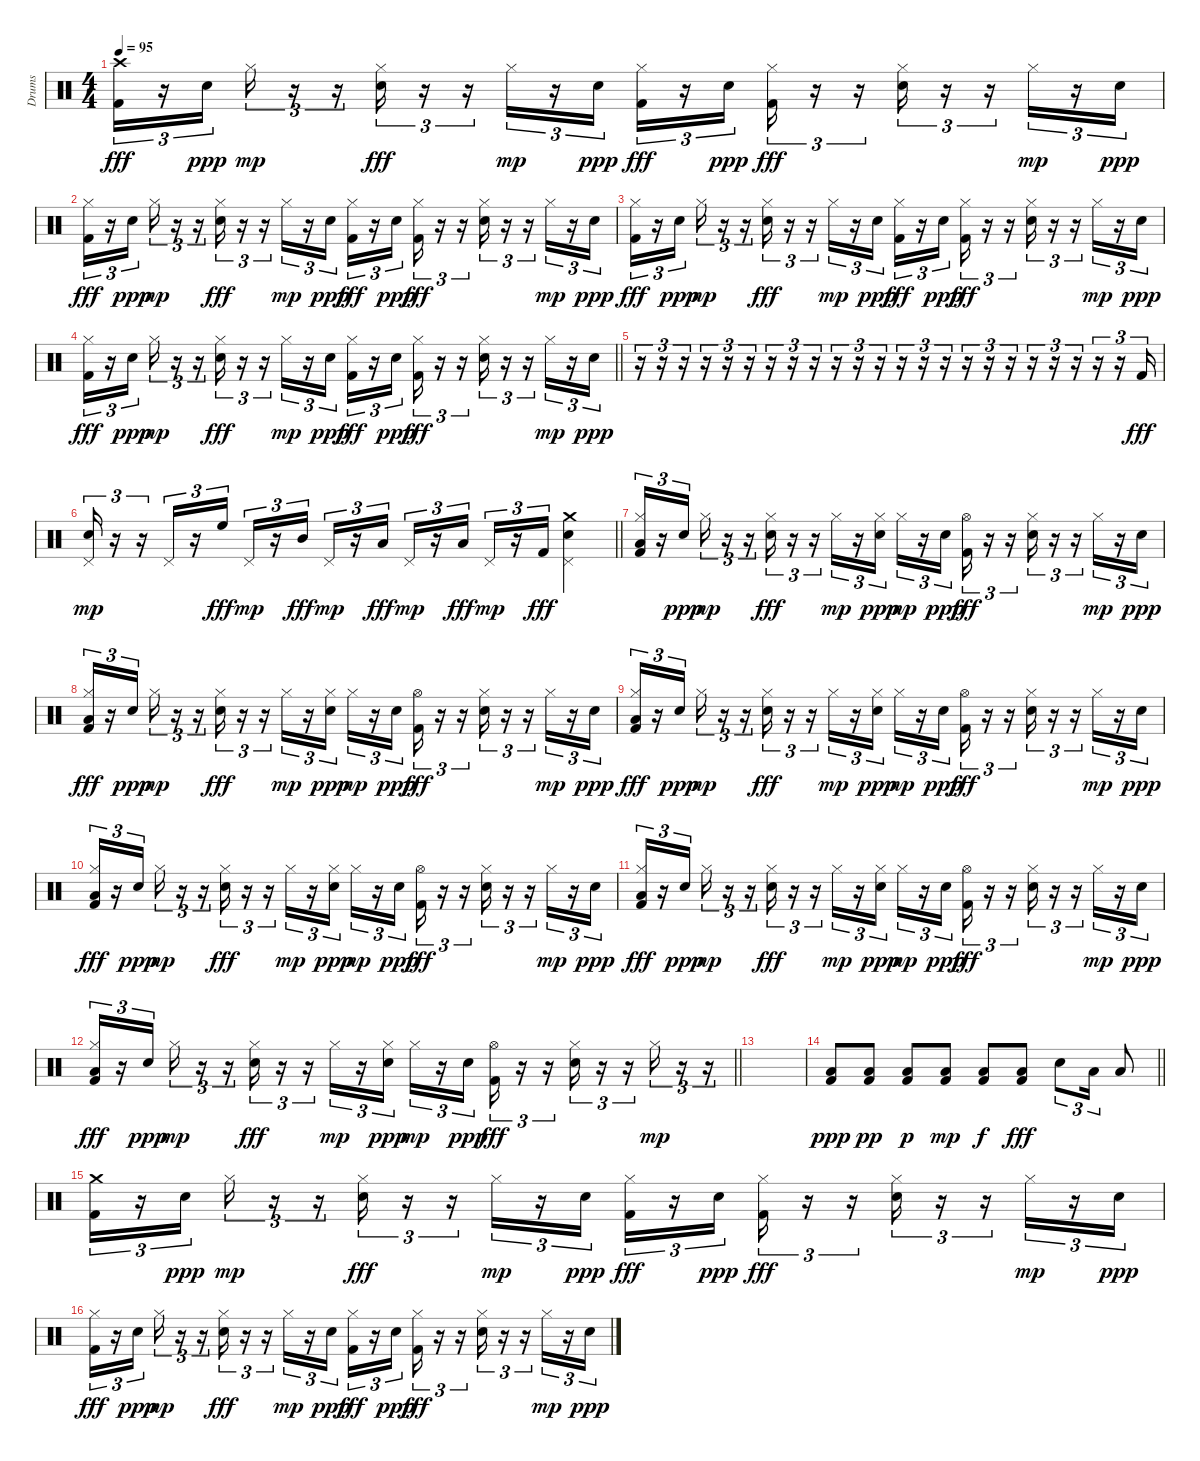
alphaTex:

\track ("Drums" "Drums") {instrument percussion}
\staff {score}
\articulation defaults
\ts (4 4)
\tempo 95
\clef neutral
\ks c
("Crash high (hit)" "Kick (hit) 2").16{tu (3 2) dy fff} r.16{tu (3 2)} "Electric Snare (hit)".16{tu (3 2) dy ppp} "Hi-Hat (closed)".16{tu (3 2) dy mp} r.16{tu (3 2)} r.16{tu (3 2)} ("Hi-Hat (closed)" "Electric Snare (hit)").16{tu (3 2) dy fff} r.16{tu (3 2)} r.16{tu (3 2)} "Hi-Hat (closed)".16{tu (3 2) dy mp} r.16{tu (3 2)} "Electric Snare (hit)".16{tu (3 2) dy ppp} ("Hi-Hat (closed)" "Kick (hit) 2").16{tu (3 2) dy fff} r.16{tu (3 2)} "Electric Snare (hit)".16{tu (3 2) dy ppp} ("Hi-Hat (closed)" "Kick (hit) 2").16{tu (3 2) dy fff} r.16{tu (3 2)} r.16{tu (3 2)} ("Hi-Hat (closed)" "Electric Snare (hit)").16{tu (3 2)} r.16{tu (3 2)} r.16{tu (3 2)} "Hi-Hat (closed)".16{tu (3 2) dy mp} r.16{tu (3 2)} "Electric Snare (hit)".16{tu (3 2) dy ppp} |
("Hi-Hat (closed)" "Kick (hit) 2").16{tu (3 2) dy fff} r.16{tu (3 2)} "Electric Snare (hit)".16{tu (3 2) dy ppp} "Hi-Hat (closed)".16{tu (3 2) dy mp} r.16{tu (3 2)} r.16{tu (3 2)} ("Hi-Hat (closed)" "Electric Snare (hit)").16{tu (3 2) dy fff} r.16{tu (3 2)} r.16{tu (3 2)} "Hi-Hat (closed)".16{tu (3 2) dy mp} r.16{tu (3 2)} "Electric Snare (hit)".16{tu (3 2) dy ppp} ("Hi-Hat (closed)" "Kick (hit) 2").16{tu (3 2) dy fff} r.16{tu (3 2)} "Electric Snare (hit)".16{tu (3 2) dy ppp} ("Hi-Hat (closed)" "Kick (hit) 2").16{tu (3 2) dy fff} r.16{tu (3 2)} r.16{tu (3 2)} ("Hi-Hat (closed)" "Electric Snare (hit)").16{tu (3 2)} r.16{tu (3 2)} r.16{tu (3 2)} "Hi-Hat (closed)".16{tu (3 2) dy mp} r.16{tu (3 2)} "Electric Snare (hit)".16{tu (3 2) dy ppp} |
("Hi-Hat (closed)" "Kick (hit) 2").16{tu (3 2) dy fff} r.16{tu (3 2)} "Electric Snare (hit)".16{tu (3 2) dy ppp} "Hi-Hat (closed)".16{tu (3 2) dy mp} r.16{tu (3 2)} r.16{tu (3 2)} ("Hi-Hat (closed)" "Electric Snare (hit)").16{tu (3 2) dy fff} r.16{tu (3 2)} r.16{tu (3 2)} "Hi-Hat (closed)".16{tu (3 2) dy mp} r.16{tu (3 2)} "Electric Snare (hit)".16{tu (3 2) dy ppp} ("Hi-Hat (closed)" "Kick (hit) 2").16{tu (3 2) dy fff} r.16{tu (3 2)} "Electric Snare (hit)".16{tu (3 2) dy ppp} ("Hi-Hat (closed)" "Kick (hit) 2").16{tu (3 2) dy fff} r.16{tu (3 2)} r.16{tu (3 2)} ("Hi-Hat (closed)" "Electric Snare (hit)").16{tu (3 2)} r.16{tu (3 2)} r.16{tu (3 2)} "Hi-Hat (closed)".16{tu (3 2) dy mp} r.16{tu (3 2)} "Electric Snare (hit)".16{tu (3 2) dy ppp} |
\barLineRight lightlight
("Hi-Hat (closed)" "Kick (hit) 2").16{tu (3 2) dy fff} r.16{tu (3 2)} "Electric Snare (hit)".16{tu (3 2) dy ppp} "Hi-Hat (closed)".16{tu (3 2) dy mp} r.16{tu (3 2)} r.16{tu (3 2)} ("Hi-Hat (closed)" "Electric Snare (hit)").16{tu (3 2) dy fff} r.16{tu (3 2)} r.16{tu (3 2)} "Hi-Hat (closed)".16{tu (3 2) dy mp} r.16{tu (3 2)} "Electric Snare (hit)".16{tu (3 2) dy ppp} ("Hi-Hat (closed)" "Kick (hit) 2").16{tu (3 2) dy fff} r.16{tu (3 2)} "Electric Snare (hit)".16{tu (3 2) dy ppp} ("Hi-Hat (closed)" "Kick (hit) 2").16{tu (3 2) dy fff} r.16{tu (3 2)} r.16{tu (3 2)} ("Hi-Hat (closed)" "Electric Snare (hit)").16{tu (3 2)} r.16{tu (3 2)} r.16{tu (3 2)} "Hi-Hat (closed)".16{tu (3 2) dy mp} r.16{tu (3 2)} "Electric Snare (hit)".16{tu (3 2) dy ppp} |
r.16{tu (3 2)} r.16{tu (3 2)} r.16{tu (3 2)} r.16{tu (3 2)} r.16{tu (3 2)} r.16{tu (3 2)} r.16{tu (3 2)} r.16{tu (3 2)} r.16{tu (3 2)} r.16{tu (3 2)} r.16{tu (3 2)} r.16{tu (3 2)} r.16{tu (3 2)} r.16{tu (3 2)} r.16{tu (3 2)} r.16{tu (3 2)} r.16{tu (3 2)} r.16{tu (3 2)} r.16{tu (3 2)} r.16{tu (3 2)} r.16{tu (3 2)} r.16{tu (3 2)} r.16{tu (3 2)} "Kick (hit) 2".16{tu (3 2) dy fff} |
\barLineRight lightlight
("Electric Snare (hit)" "Pedal Hi-Hat (hit)").16{tu (3 2) dy mp} r.16{tu (3 2)} r.16{tu (3 2)} "Pedal Hi-Hat (hit)".16{tu (3 2)} r.16{tu (3 2)} "High Floor Tom (hit)".16{tu (3 2) dy fff} "Pedal Hi-Hat (hit)".16{tu (3 2) dy mp} r.16{tu (3 2)} "Mid Tom (hit)".16{tu (3 2) dy fff} "Pedal Hi-Hat (hit)".16{tu (3 2) dy mp} r.16{tu (3 2)} "Low Tom (hit)".16{tu (3 2) dy fff} "Pedal Hi-Hat (hit)".16{tu (3 2) dy mp} r.16{tu (3 2)} "Low Floor Tom (hit)".16{tu (3 2) dy fff} "Pedal Hi-Hat (hit)".16{tu (3 2) dy mp} r.16{tu (3 2)} "Kick (hit) 2".16{tu (3 2) dy fff} ("Crash medium (hit)" "Electric Snare (hit)" "Pedal Hi-Hat (hit)").4 |
("Hi-Hat (closed)" "Low Floor Tom (hit)" "Kick (hit) 2").16{tu (3 2)} r.16{tu (3 2)} "Electric Snare (hit)".16{tu (3 2) dy ppp} "Hi-Hat (closed)".16{tu (3 2) dy mp} r.16{tu (3 2)} r.16{tu (3 2)} ("Hi-Hat (closed)" "Electric Snare (hit)").16{tu (3 2) dy fff} r.16{tu (3 2)} r.16{tu (3 2)} "Hi-Hat (closed)".16{tu (3 2) dy mp} r.16{tu (3 2)} ("Hi-Hat (closed)" "Electric Snare (hit)").16{tu (3 2) dy ppp} "Hi-Hat (closed)".16{tu (3 2) dy mp} r.16{tu (3 2)} "Electric Snare (hit)".16{tu (3 2) dy ppp} ("Hi-Hat (open)" "Kick (hit) 2").16{tu (3 2) dy fff} r.16{tu (3 2)} r.16{tu (3 2)} ("Hi-Hat (closed)" "Electric Snare (hit)").16{tu (3 2)} r.16{tu (3 2)} r.16{tu (3 2)} "Hi-Hat (closed)".16{tu (3 2) dy mp} r.16{tu (3 2)} "Electric Snare (hit)".16{tu (3 2) dy ppp} |
("Hi-Hat (closed)" "Low Floor Tom (hit)" "Kick (hit) 2").16{tu (3 2) dy fff} r.16{tu (3 2)} "Electric Snare (hit)".16{tu (3 2) dy ppp} "Hi-Hat (closed)".16{tu (3 2) dy mp} r.16{tu (3 2)} r.16{tu (3 2)} ("Hi-Hat (closed)" "Electric Snare (hit)").16{tu (3 2) dy fff} r.16{tu (3 2)} r.16{tu (3 2)} "Hi-Hat (closed)".16{tu (3 2) dy mp} r.16{tu (3 2)} ("Hi-Hat (closed)" "Electric Snare (hit)").16{tu (3 2) dy ppp} "Hi-Hat (closed)".16{tu (3 2) dy mp} r.16{tu (3 2)} "Electric Snare (hit)".16{tu (3 2) dy ppp} ("Hi-Hat (open)" "Kick (hit) 2").16{tu (3 2) dy fff} r.16{tu (3 2)} r.16{tu (3 2)} ("Hi-Hat (closed)" "Electric Snare (hit)").16{tu (3 2)} r.16{tu (3 2)} r.16{tu (3 2)} "Hi-Hat (closed)".16{tu (3 2) dy mp} r.16{tu (3 2)} "Electric Snare (hit)".16{tu (3 2) dy ppp} |
("Hi-Hat (closed)" "Low Floor Tom (hit)" "Kick (hit) 2").16{tu (3 2) dy fff} r.16{tu (3 2)} "Electric Snare (hit)".16{tu (3 2) dy ppp} "Hi-Hat (closed)".16{tu (3 2) dy mp} r.16{tu (3 2)} r.16{tu (3 2)} ("Hi-Hat (closed)" "Electric Snare (hit)").16{tu (3 2) dy fff} r.16{tu (3 2)} r.16{tu (3 2)} "Hi-Hat (closed)".16{tu (3 2) dy mp} r.16{tu (3 2)} ("Hi-Hat (closed)" "Electric Snare (hit)").16{tu (3 2) dy ppp} "Hi-Hat (closed)".16{tu (3 2) dy mp} r.16{tu (3 2)} "Electric Snare (hit)".16{tu (3 2) dy ppp} ("Hi-Hat (open)" "Kick (hit) 2").16{tu (3 2) dy fff} r.16{tu (3 2)} r.16{tu (3 2)} ("Hi-Hat (closed)" "Electric Snare (hit)").16{tu (3 2)} r.16{tu (3 2)} r.16{tu (3 2)} "Hi-Hat (closed)".16{tu (3 2) dy mp} r.16{tu (3 2)} "Electric Snare (hit)".16{tu (3 2) dy ppp} |
("Hi-Hat (closed)" "Low Floor Tom (hit)" "Kick (hit) 2").16{tu (3 2) dy fff} r.16{tu (3 2)} "Electric Snare (hit)".16{tu (3 2) dy ppp} "Hi-Hat (closed)".16{tu (3 2) dy mp} r.16{tu (3 2)} r.16{tu (3 2)} ("Hi-Hat (closed)" "Electric Snare (hit)").16{tu (3 2) dy fff} r.16{tu (3 2)} r.16{tu (3 2)} "Hi-Hat (closed)".16{tu (3 2) dy mp} r.16{tu (3 2)} ("Hi-Hat (closed)" "Electric Snare (hit)").16{tu (3 2) dy ppp} "Hi-Hat (closed)".16{tu (3 2) dy mp} r.16{tu (3 2)} "Electric Snare (hit)".16{tu (3 2) dy ppp} ("Hi-Hat (open)" "Kick (hit) 2").16{tu (3 2) dy fff} r.16{tu (3 2)} r.16{tu (3 2)} ("Hi-Hat (closed)" "Electric Snare (hit)").16{tu (3 2)} r.16{tu (3 2)} r.16{tu (3 2)} "Hi-Hat (closed)".16{tu (3 2) dy mp} r.16{tu (3 2)} "Electric Snare (hit)".16{tu (3 2) dy ppp} |
("Hi-Hat (closed)" "Low Floor Tom (hit)" "Kick (hit) 2").16{tu (3 2) dy fff} r.16{tu (3 2)} "Electric Snare (hit)".16{tu (3 2) dy ppp} "Hi-Hat (closed)".16{tu (3 2) dy mp} r.16{tu (3 2)} r.16{tu (3 2)} ("Hi-Hat (closed)" "Electric Snare (hit)").16{tu (3 2) dy fff} r.16{tu (3 2)} r.16{tu (3 2)} "Hi-Hat (closed)".16{tu (3 2) dy mp} r.16{tu (3 2)} ("Hi-Hat (closed)" "Electric Snare (hit)").16{tu (3 2) dy ppp} "Hi-Hat (closed)".16{tu (3 2) dy mp} r.16{tu (3 2)} "Electric Snare (hit)".16{tu (3 2) dy ppp} ("Hi-Hat (open)" "Kick (hit) 2").16{tu (3 2) dy fff} r.16{tu (3 2)} r.16{tu (3 2)} ("Hi-Hat (closed)" "Electric Snare (hit)").16{tu (3 2)} r.16{tu (3 2)} r.16{tu (3 2)} "Hi-Hat (closed)".16{tu (3 2) dy mp} r.16{tu (3 2)} "Electric Snare (hit)".16{tu (3 2) dy ppp} |
\barLineRight lightlight
("Hi-Hat (closed)" "Low Floor Tom (hit)" "Kick (hit) 2").16{tu (3 2) dy fff} r.16{tu (3 2)} "Electric Snare (hit)".16{tu (3 2) dy ppp} "Hi-Hat (closed)".16{tu (3 2) dy mp} r.16{tu (3 2)} r.16{tu (3 2)} ("Hi-Hat (closed)" "Electric Snare (hit)").16{tu (3 2) dy fff} r.16{tu (3 2)} r.16{tu (3 2)} "Hi-Hat (closed)".16{tu (3 2) dy mp} r.16{tu (3 2)} ("Hi-Hat (closed)" "Electric Snare (hit)").16{tu (3 2) dy ppp} "Hi-Hat (closed)".16{tu (3 2) dy mp} r.16{tu (3 2)} "Electric Snare (hit)".16{tu (3 2) dy ppp} ("Hi-Hat (open)" "Kick (hit) 2").16{tu (3 2) dy fff} r.16{tu (3 2)} r.16{tu (3 2)} ("Hi-Hat (closed)" "Electric Snare (hit)").16{tu (3 2)} r.16{tu (3 2)} r.16{tu (3 2)} "Hi-Hat (closed)".16{tu (3 2) dy mp} r.16{tu (3 2)} r.16{tu (3 2)} |
|
\barLineRight lightlight
("Low Floor Tom (hit)" "Kick (hit) 2").8{dy ppp} ("Low Floor Tom (hit)" "Kick (hit) 2").8{dy pp} ("Low Floor Tom (hit)" "Kick (hit) 2").8{dy p} ("Low Floor Tom (hit)" "Kick (hit) 2").8{dy mp} ("Low Floor Tom (hit)" "Kick (hit) 2").8{dy f} ("Low Floor Tom (hit)" "Kick (hit) 2").8{dy fff} "Electric Snare (hit)".8{tu (3 2)} "Low Tom (hit)".16{tu (3 2)} "Low Floor Tom (hit)".8 |
("Crash medium (hit)" "Kick (hit) 2").16{tu (3 2)} r.16{tu (3 2)} "Electric Snare (hit)".16{tu (3 2) dy ppp} "Hi-Hat (closed)".16{tu (3 2) dy mp} r.16{tu (3 2)} r.16{tu (3 2)} ("Hi-Hat (closed)" "Electric Snare (hit)").16{tu (3 2) dy fff} r.16{tu (3 2)} r.16{tu (3 2)} "Hi-Hat (closed)".16{tu (3 2) dy mp} r.16{tu (3 2)} "Electric Snare (hit)".16{tu (3 2) dy ppp} ("Hi-Hat (closed)" "Kick (hit) 2").16{tu (3 2) dy fff} r.16{tu (3 2)} "Electric Snare (hit)".16{tu (3 2) dy ppp} ("Hi-Hat (closed)" "Kick (hit) 2").16{tu (3 2) dy fff} r.16{tu (3 2)} r.16{tu (3 2)} ("Hi-Hat (closed)" "Electric Snare (hit)").16{tu (3 2)} r.16{tu (3 2)} r.16{tu (3 2)} "Hi-Hat (closed)".16{tu (3 2) dy mp} r.16{tu (3 2)} "Electric Snare (hit)".16{tu (3 2) dy ppp} |
("Hi-Hat (closed)" "Kick (hit) 2").16{tu (3 2) dy fff} r.16{tu (3 2)} "Electric Snare (hit)".16{tu (3 2) dy ppp} "Hi-Hat (closed)".16{tu (3 2) dy mp} r.16{tu (3 2)} r.16{tu (3 2)} ("Hi-Hat (closed)" "Electric Snare (hit)").16{tu (3 2) dy fff} r.16{tu (3 2)} r.16{tu (3 2)} "Hi-Hat (closed)".16{tu (3 2) dy mp} r.16{tu (3 2)} "Electric Snare (hit)".16{tu (3 2) dy ppp} ("Hi-Hat (closed)" "Kick (hit) 2").16{tu (3 2) dy fff} r.16{tu (3 2)} "Electric Snare (hit)".16{tu (3 2) dy ppp} ("Hi-Hat (closed)" "Kick (hit) 2").16{tu (3 2) dy fff} r.16{tu (3 2)} r.16{tu (3 2)} ("Hi-Hat (closed)" "Electric Snare (hit)").16{tu (3 2)} r.16{tu (3 2)} r.16{tu (3 2)} "Hi-Hat (closed)".16{tu (3 2) dy mp} r.16{tu (3 2)} "Electric Snare (hit)".16{tu (3 2) dy ppp}
